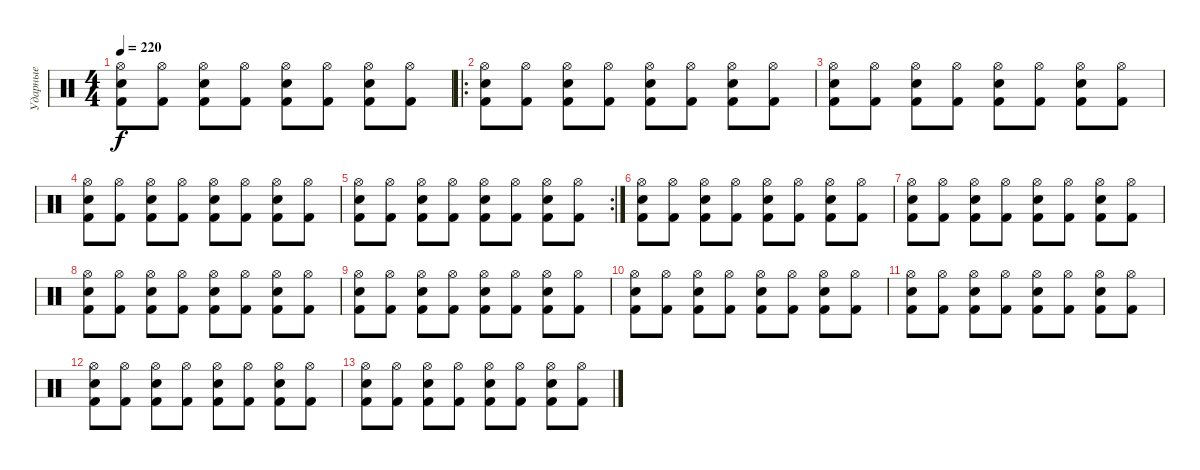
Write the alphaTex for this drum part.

\track ("Ударные" "Ударные") {instrument percussion}
\staff
\articulation defaults
\ts (4 4)
\tempo 220
\clef neutral
\ks c
("Kick (hit) 2" "Snare (hit) 2" "Hi-Hat (open)").8{dy f} ("Kick (hit) 2" "Hi-Hat (open)").8 ("Kick (hit) 2" "Snare (hit) 2" "Hi-Hat (open)").8 ("Kick (hit) 2" "Hi-Hat (open)").8 ("Kick (hit) 2" "Snare (hit) 2" "Hi-Hat (open)").8 ("Kick (hit) 2" "Hi-Hat (open)").8 ("Kick (hit) 2" "Snare (hit) 2" "Hi-Hat (open)").8 ("Kick (hit) 2" "Hi-Hat (open)").8 |
\ro
("Kick (hit) 2" "Snare (hit) 2" "Hi-Hat (open)").8 ("Kick (hit) 2" "Hi-Hat (open)").8 ("Kick (hit) 2" "Snare (hit) 2" "Hi-Hat (open)").8 ("Kick (hit) 2" "Hi-Hat (open)").8 ("Kick (hit) 2" "Snare (hit) 2" "Hi-Hat (open)").8 ("Kick (hit) 2" "Hi-Hat (open)").8 ("Kick (hit) 2" "Snare (hit) 2" "Hi-Hat (open)").8 ("Kick (hit) 2" "Hi-Hat (open)").8 |
("Kick (hit) 2" "Snare (hit) 2" "Hi-Hat (open)").8 ("Kick (hit) 2" "Hi-Hat (open)").8 ("Kick (hit) 2" "Snare (hit) 2" "Hi-Hat (open)").8 ("Kick (hit) 2" "Hi-Hat (open)").8 ("Kick (hit) 2" "Snare (hit) 2" "Hi-Hat (open)").8 ("Kick (hit) 2" "Hi-Hat (open)").8 ("Kick (hit) 2" "Snare (hit) 2" "Hi-Hat (open)").8 ("Kick (hit) 2" "Hi-Hat (open)").8 |
("Kick (hit) 2" "Snare (hit) 2" "Hi-Hat (open)").8 ("Kick (hit) 2" "Hi-Hat (open)").8 ("Kick (hit) 2" "Snare (hit) 2" "Hi-Hat (open)").8 ("Kick (hit) 2" "Hi-Hat (open)").8 ("Kick (hit) 2" "Snare (hit) 2" "Hi-Hat (open)").8 ("Kick (hit) 2" "Hi-Hat (open)").8 ("Kick (hit) 2" "Snare (hit) 2" "Hi-Hat (open)").8 ("Kick (hit) 2" "Hi-Hat (open)").8 |
\rc 2
("Kick (hit) 2" "Snare (hit) 2" "Hi-Hat (open)").8 ("Kick (hit) 2" "Hi-Hat (open)").8 ("Kick (hit) 2" "Snare (hit) 2" "Hi-Hat (open)").8 ("Kick (hit) 2" "Hi-Hat (open)").8 ("Kick (hit) 2" "Snare (hit) 2" "Hi-Hat (open)").8 ("Kick (hit) 2" "Hi-Hat (open)").8 ("Kick (hit) 2" "Snare (hit) 2" "Hi-Hat (open)").8 ("Kick (hit) 2" "Hi-Hat (open)").8 |
("Kick (hit) 2" "Snare (hit) 2" "Hi-Hat (open)").8 ("Kick (hit) 2" "Hi-Hat (open)").8 ("Kick (hit) 2" "Snare (hit) 2" "Hi-Hat (open)").8 ("Kick (hit) 2" "Hi-Hat (open)").8 ("Kick (hit) 2" "Snare (hit) 2" "Hi-Hat (open)").8 ("Kick (hit) 2" "Hi-Hat (open)").8 ("Kick (hit) 2" "Snare (hit) 2" "Hi-Hat (open)").8 ("Kick (hit) 2" "Hi-Hat (open)").8 |
("Kick (hit) 2" "Snare (hit) 2" "Hi-Hat (open)").8 ("Kick (hit) 2" "Hi-Hat (open)").8 ("Kick (hit) 2" "Snare (hit) 2" "Hi-Hat (open)").8 ("Kick (hit) 2" "Hi-Hat (open)").8 ("Kick (hit) 2" "Snare (hit) 2" "Hi-Hat (open)").8 ("Kick (hit) 2" "Hi-Hat (open)").8 ("Kick (hit) 2" "Snare (hit) 2" "Hi-Hat (open)").8 ("Kick (hit) 2" "Hi-Hat (open)").8 |
("Kick (hit) 2" "Snare (hit) 2" "Hi-Hat (open)").8 ("Kick (hit) 2" "Hi-Hat (open)").8 ("Kick (hit) 2" "Snare (hit) 2" "Hi-Hat (open)").8 ("Kick (hit) 2" "Hi-Hat (open)").8 ("Kick (hit) 2" "Snare (hit) 2" "Hi-Hat (open)").8 ("Kick (hit) 2" "Hi-Hat (open)").8 ("Kick (hit) 2" "Snare (hit) 2" "Hi-Hat (open)").8 ("Kick (hit) 2" "Hi-Hat (open)").8 |
("Kick (hit) 2" "Snare (hit) 2" "Hi-Hat (open)").8 ("Kick (hit) 2" "Hi-Hat (open)").8 ("Kick (hit) 2" "Snare (hit) 2" "Hi-Hat (open)").8 ("Kick (hit) 2" "Hi-Hat (open)").8 ("Kick (hit) 2" "Snare (hit) 2" "Hi-Hat (open)").8 ("Kick (hit) 2" "Hi-Hat (open)").8 ("Kick (hit) 2" "Snare (hit) 2" "Hi-Hat (open)").8 ("Kick (hit) 2" "Hi-Hat (open)").8 |
("Kick (hit) 2" "Snare (hit) 2" "Hi-Hat (open)").8 ("Kick (hit) 2" "Hi-Hat (open)").8 ("Kick (hit) 2" "Snare (hit) 2" "Hi-Hat (open)").8 ("Kick (hit) 2" "Hi-Hat (open)").8 ("Kick (hit) 2" "Snare (hit) 2" "Hi-Hat (open)").8 ("Kick (hit) 2" "Hi-Hat (open)").8 ("Kick (hit) 2" "Snare (hit) 2" "Hi-Hat (open)").8 ("Kick (hit) 2" "Hi-Hat (open)").8 |
("Kick (hit) 2" "Snare (hit) 2" "Hi-Hat (open)").8 ("Kick (hit) 2" "Hi-Hat (open)").8 ("Kick (hit) 2" "Snare (hit) 2" "Hi-Hat (open)").8 ("Kick (hit) 2" "Hi-Hat (open)").8 ("Kick (hit) 2" "Snare (hit) 2" "Hi-Hat (open)").8 ("Kick (hit) 2" "Hi-Hat (open)").8 ("Kick (hit) 2" "Snare (hit) 2" "Hi-Hat (open)").8 ("Kick (hit) 2" "Hi-Hat (open)").8 |
("Kick (hit) 2" "Snare (hit) 2" "Hi-Hat (open)").8 ("Kick (hit) 2" "Hi-Hat (open)").8 ("Kick (hit) 2" "Snare (hit) 2" "Hi-Hat (open)").8 ("Kick (hit) 2" "Hi-Hat (open)").8 ("Kick (hit) 2" "Snare (hit) 2" "Hi-Hat (open)").8 ("Kick (hit) 2" "Hi-Hat (open)").8 ("Kick (hit) 2" "Snare (hit) 2" "Hi-Hat (open)").8 ("Kick (hit) 2" "Hi-Hat (open)").8 |
("Kick (hit) 2" "Snare (hit) 2" "Hi-Hat (open)").8 ("Kick (hit) 2" "Hi-Hat (open)").8 ("Kick (hit) 2" "Snare (hit) 2" "Hi-Hat (open)").8 ("Kick (hit) 2" "Hi-Hat (open)").8 ("Kick (hit) 2" "Snare (hit) 2" "Hi-Hat (open)").8 ("Kick (hit) 2" "Hi-Hat (open)").8 ("Kick (hit) 2" "Snare (hit) 2" "Hi-Hat (open)").8 ("Kick (hit) 2" "Hi-Hat (open)").8
